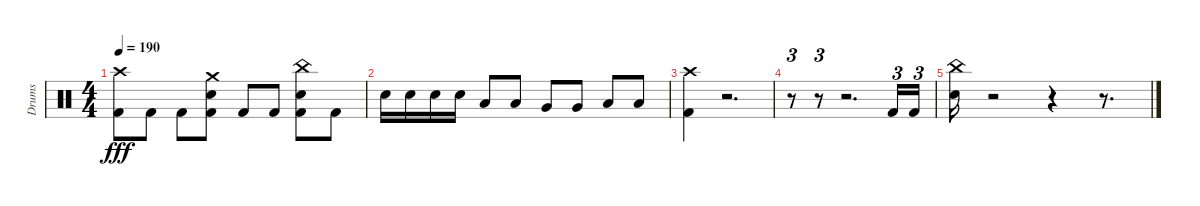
\track ("Drums" "Drums") {instrument percussion}
\staff {score}
\articulation defaults
\ts (4 4)
\tempo 190
\clef neutral
\ks aminor
("Crash high (hit)" "Kick (hit) 2").8{dy fff} "Kick (hit) 2".8 "Kick (hit) 2".8 ("Snare (hit) 2" "Kick (hit) 2" "Crash medium (hit)").8 "Kick (hit) 2".8 "Kick (hit) 2".8 ("Kick (hit) 2" "Snare (hit) 2" "China (hit)").8 "Kick (hit) 2".8 |
"Snare (hit) 2".16 "Snare (hit) 2".16 "Snare (hit) 2".16 "Snare (hit) 2".16 "Low Tom (hit)".8 "Low Tom (hit)".8 "Very Low Tom (hit)".8 "Very Low Tom (hit)".8 "Low Floor Tom (hit)".8 "Low Floor Tom (hit)".8 |
("Crash high (hit)" "Kick (hit) 2").4 r.2{d} |
r.8{tu (3 2)} r.8{tu (3 2)} r.2{d} "Kick (hit) 2".16{tu (3 2)} "Kick (hit) 2".16{tu (3 2)} |
("Snare (hit) 2" "China (hit)").16 r.2 r.4 r.8{d}
